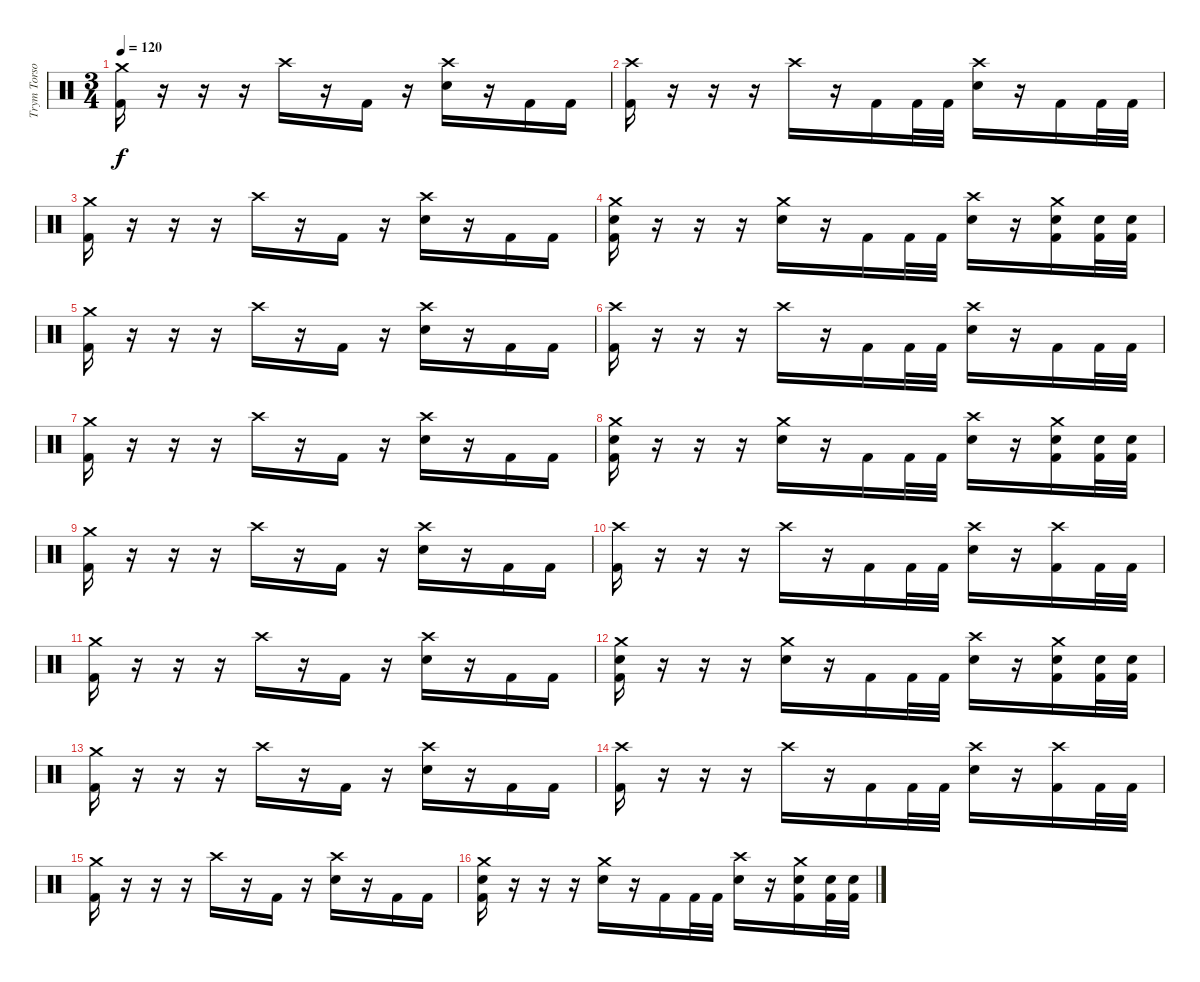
\track ("Trym Torson" "Trym Torso") {instrument percussion}
\staff {score}
\articulation defaults
\ts (3 4)
\tempo 120
\clef neutral
\ks c
("Crash medium (hit)" "Kick (hit) 2").16{dy f} r.16 r.16 r.16 "Crash high (hit)".16 r.16 "Kick (hit) 2".16 r.16 ("Crash high (hit)" "Snare (hit) 2").16 r.16 "Kick (hit) 2".16 "Kick (hit) 2".16 |
("Crash high (hit)" "Kick (hit) 2").16 r.16 r.16 r.16 "Crash high (hit)".16 r.16 "Kick (hit) 2".16 "Kick (hit) 2".32 "Kick (hit) 2".32 ("Crash high (hit)" "Snare (hit) 2").16 r.16 "Kick (hit) 2".16 "Kick (hit) 2".32 "Kick (hit) 2".32 |
("Crash medium (hit)" "Kick (hit) 2").16 r.16 r.16 r.16 "Crash high (hit)".16 r.16 "Kick (hit) 2".16 r.16 ("Crash high (hit)" "Snare (hit) 2").16 r.16 "Kick (hit) 2".16 "Kick (hit) 2".16 |
("Crash medium (hit)" "Snare (hit) 2" "Kick (hit) 2").16 r.16 r.16 r.16 ("Crash medium (hit)" "Snare (hit) 2").16 r.16 "Kick (hit) 2".16 "Kick (hit) 2".32 "Kick (hit) 2".32 ("Crash high (hit)" "Snare (hit) 2").16 r.16 ("Crash medium (hit)" "Snare (hit) 2" "Kick (hit) 2").16 ("Snare (hit) 2" "Kick (hit) 2").32 ("Snare (hit) 2" "Kick (hit) 2").32 |
("Crash medium (hit)" "Kick (hit) 2").16 r.16 r.16 r.16 "Crash high (hit)".16 r.16 "Kick (hit) 2".16 r.16 ("Crash high (hit)" "Snare (hit) 2").16 r.16 "Kick (hit) 2".16 "Kick (hit) 2".16 |
("Crash high (hit)" "Kick (hit) 2").16 r.16 r.16 r.16 "Crash high (hit)".16 r.16 "Kick (hit) 2".16 "Kick (hit) 2".32 "Kick (hit) 2".32 ("Crash high (hit)" "Snare (hit) 2").16 r.16 "Kick (hit) 2".16 "Kick (hit) 2".32 "Kick (hit) 2".32 |
("Crash medium (hit)" "Kick (hit) 2").16 r.16 r.16 r.16 "Crash high (hit)".16 r.16 "Kick (hit) 2".16 r.16 ("Crash high (hit)" "Snare (hit) 2").16 r.16 "Kick (hit) 2".16 "Kick (hit) 2".16 |
("Crash medium (hit)" "Snare (hit) 2" "Kick (hit) 2").16 r.16 r.16 r.16 ("Crash medium (hit)" "Snare (hit) 2").16 r.16 "Kick (hit) 2".16 "Kick (hit) 2".32 "Kick (hit) 2".32 ("Crash high (hit)" "Snare (hit) 2").16 r.16 ("Crash medium (hit)" "Snare (hit) 2" "Kick (hit) 2").16 ("Snare (hit) 2" "Kick (hit) 2").32 ("Snare (hit) 2" "Kick (hit) 2").32 |
("Crash medium (hit)" "Kick (hit) 2").16 r.16 r.16 r.16 "Crash high (hit)".16 r.16 "Kick (hit) 2".16 r.16 ("Crash high (hit)" "Snare (hit) 2").16 r.16 "Kick (hit) 2".16 "Kick (hit) 2".16 |
("Crash high (hit)" "Kick (hit) 2").16 r.16 r.16 r.16 "Crash high (hit)".16 r.16 "Kick (hit) 2".16 "Kick (hit) 2".32 "Kick (hit) 2".32 ("Crash high (hit)" "Snare (hit) 2").16 r.16 ("Crash high (hit)" "Kick (hit) 2").16 "Kick (hit) 2".32 "Kick (hit) 2".32 |
("Crash medium (hit)" "Kick (hit) 2").16 r.16 r.16 r.16 "Crash high (hit)".16 r.16 "Kick (hit) 2".16 r.16 ("Crash high (hit)" "Snare (hit) 2").16 r.16 "Kick (hit) 2".16 "Kick (hit) 2".16 |
("Crash medium (hit)" "Snare (hit) 2" "Kick (hit) 2").16 r.16 r.16 r.16 ("Crash medium (hit)" "Snare (hit) 2").16 r.16 "Kick (hit) 2".16 "Kick (hit) 2".32 "Kick (hit) 2".32 ("Crash high (hit)" "Snare (hit) 2").16 r.16 ("Crash medium (hit)" "Snare (hit) 2" "Kick (hit) 2").16 ("Snare (hit) 2" "Kick (hit) 2").32 ("Snare (hit) 2" "Kick (hit) 2").32 |
("Crash medium (hit)" "Kick (hit) 2").16 r.16 r.16 r.16 "Crash high (hit)".16 r.16 "Kick (hit) 2".16 r.16 ("Crash high (hit)" "Snare (hit) 2").16 r.16 "Kick (hit) 2".16 "Kick (hit) 2".16 |
("Crash high (hit)" "Kick (hit) 2").16 r.16 r.16 r.16 "Crash high (hit)".16 r.16 "Kick (hit) 2".16 "Kick (hit) 2".32 "Kick (hit) 2".32 ("Crash high (hit)" "Snare (hit) 2").16 r.16 ("Crash high (hit)" "Kick (hit) 2").16 "Kick (hit) 2".32 "Kick (hit) 2".32 |
("Crash medium (hit)" "Kick (hit) 2").16 r.16 r.16 r.16 "Crash high (hit)".16 r.16 "Kick (hit) 2".16 r.16 ("Crash high (hit)" "Snare (hit) 2").16 r.16 "Kick (hit) 2".16 "Kick (hit) 2".16 |
("Crash medium (hit)" "Snare (hit) 2" "Kick (hit) 2").16 r.16 r.16 r.16 ("Crash medium (hit)" "Snare (hit) 2").16 r.16 "Kick (hit) 2".16 "Kick (hit) 2".32 "Kick (hit) 2".32 ("Crash high (hit)" "Snare (hit) 2").16 r.16 ("Crash medium (hit)" "Snare (hit) 2" "Kick (hit) 2").16 ("Snare (hit) 2" "Kick (hit) 2").32 ("Snare (hit) 2" "Kick (hit) 2").32
